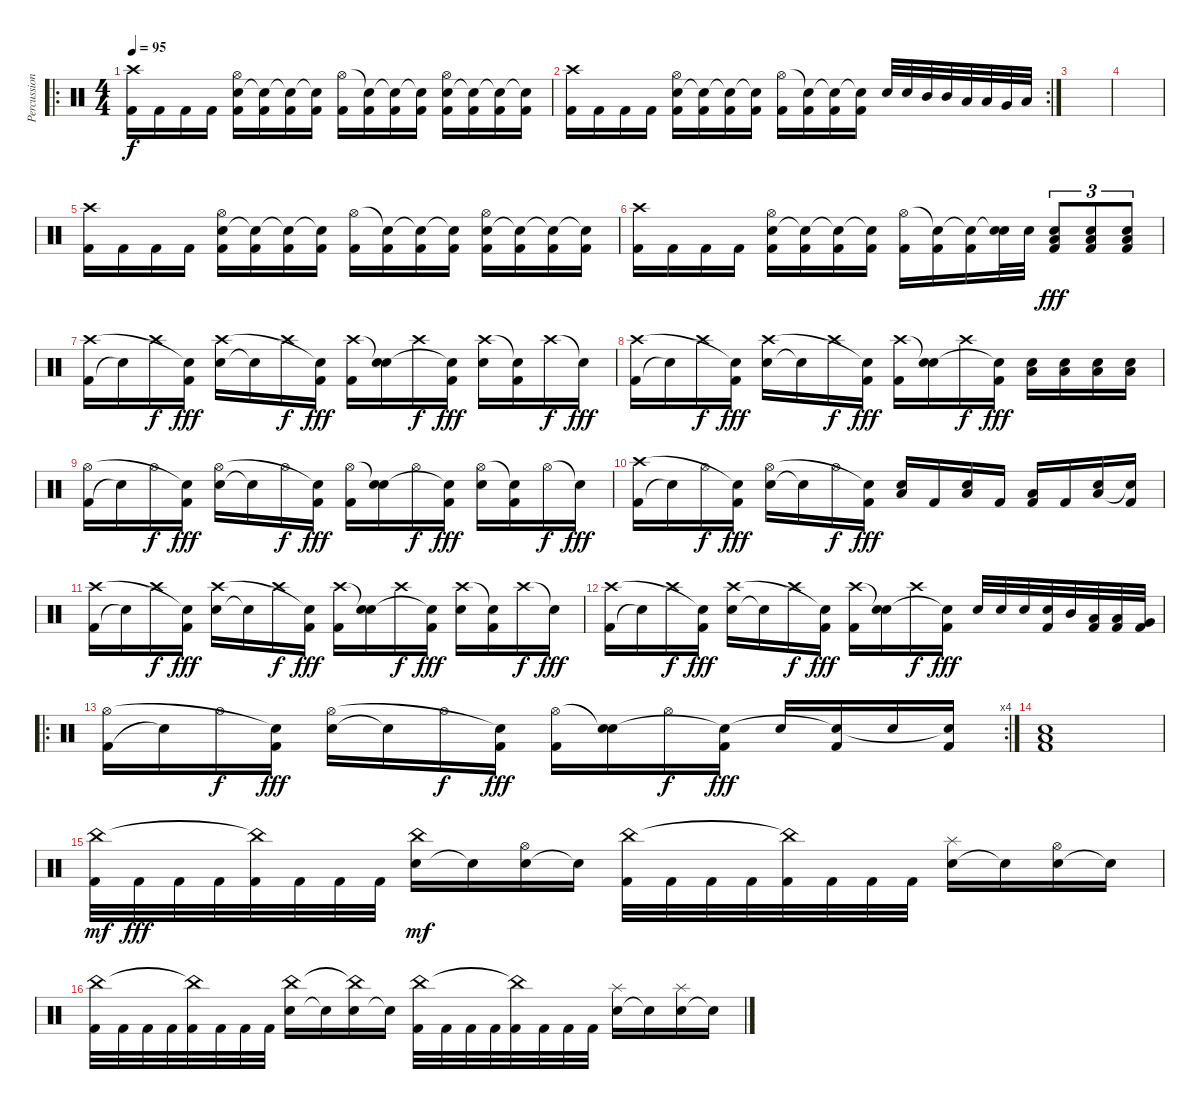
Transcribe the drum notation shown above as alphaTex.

\track ("Percussion" "Percussion") {instrument percussion}
\staff {score}
\articulation defaults
\ro
\ts (4 4)
\tempo 95
\clef neutral
\ks c
("Crash high (hit)" "Kick (hit) 2").16{dy f} "Kick (hit) 2".16 "Kick (hit) 2".16 "Kick (hit) 2".16 ("Kick (hit) 2" "Electric Snare (hit)" "Hi-Hat (open)").16 ("Kick (hit) 2" "Snare (hit)"{t}).16 ("Kick (hit) 2" "Snare (hit)"{t}).16 ("Kick (hit) 2" "Snare (hit)"{t}).16 ("Kick (hit) 2" "Hi-Hat (open)").16 ("Kick (hit) 2" "Snare (hit)"{t}).16 ("Kick (hit) 2" "Snare (hit)"{t}).16 ("Kick (hit) 2" "Snare (hit)"{t}).16 ("Kick (hit) 2" "Electric Snare (hit)" "Hi-Hat (open)").16 ("Kick (hit) 2" "Snare (hit)"{t}).16 ("Kick (hit) 2" "Snare (hit)"{t}).16 ("Kick (hit) 2" "Snare (hit)"{t}).16 |
\rc 2
("Crash high (hit)" "Kick (hit) 2").16 "Kick (hit) 2".16 "Kick (hit) 2".16 "Kick (hit) 2".16 ("Kick (hit) 2" "Electric Snare (hit)" "Hi-Hat (open)").16 ("Kick (hit) 2" "Snare (hit)"{t}).16 ("Kick (hit) 2" "Snare (hit)"{t}).16 ("Kick (hit) 2" "Snare (hit)"{t}).16 ("Kick (hit) 2" "Hi-Hat (open)").16 ("Kick (hit) 2" "Snare (hit)"{t}).16 ("Kick (hit) 2" "Snare (hit)"{t}).16 ("Kick (hit) 2" "Snare (hit)"{t}).16 "Electric Snare (hit)".32 "Electric Snare (hit)".32 "Mid Tom (hit)".32 "Mid Tom (hit)".32 "Low Tom (hit)".32 "Low Tom (hit)".32 "Very Low Tom (hit)".32 "Low Floor Tom (hit)".32 |
|
|
("Crash high (hit)" "Kick (hit) 2").16 "Kick (hit) 2".16 "Kick (hit) 2".16 "Kick (hit) 2".16 ("Kick (hit) 2" "Electric Snare (hit)" "Hi-Hat (open)").16 ("Kick (hit) 2" "Snare (hit)"{t}).16 ("Kick (hit) 2" "Snare (hit)"{t}).16 ("Kick (hit) 2" "Snare (hit)"{t}).16 ("Kick (hit) 2" "Hi-Hat (open)").16 ("Kick (hit) 2" "Snare (hit)"{t}).16 ("Kick (hit) 2" "Snare (hit)"{t}).16 ("Kick (hit) 2" "Snare (hit)"{t}).16 ("Kick (hit) 2" "Electric Snare (hit)" "Hi-Hat (open)").16 ("Kick (hit) 2" "Snare (hit)"{t}).16 ("Kick (hit) 2" "Snare (hit)"{t}).16 ("Kick (hit) 2" "Snare (hit)"{t}).16 |
("Crash high (hit)" "Kick (hit) 2").16 "Kick (hit) 2".16 "Kick (hit) 2".16 "Kick (hit) 2".16 ("Kick (hit) 2" "Electric Snare (hit)" "Hi-Hat (open)").16 ("Kick (hit) 2" "Snare (hit)"{t}).16 ("Kick (hit) 2" "Snare (hit)"{t}).16 ("Kick (hit) 2" "Snare (hit)"{t}).16 ("Kick (hit) 2" "Hi-Hat (open)").16 ("Kick (hit) 2" "Snare (hit)"{t}).16 ("Kick (hit) 2" "Snare (hit)"{t}).16 ("Electric Snare (hit)" "Snare (hit)"{t}).32 "Electric Snare (hit)".32 ("Kick (hit) 2" "Low Floor Tom (hit)" "Electric Snare (hit)").8{tu (3 2) dy fff} ("Kick (hit) 2" "Low Floor Tom (hit)" "Electric Snare (hit)").8{tu (3 2)} ("Kick (hit) 2" "Low Floor Tom (hit)" "Electric Snare (hit)").8{tu (3 2)} |
("Kick (hit) 2" "Crash high (hit)").16 "Snare (hit)"{t}.16 "Crash high (hit)".16{dy f} ("Kick (hit) 2" "Snare (hit)"{t}).16{dy fff} ("Electric Snare (hit)" "Crash high (hit)").16 "Snare (hit)"{t}.16 "Crash high (hit)".16{dy f} ("Kick (hit) 2" "Snare (hit)"{t}).16{dy fff} ("Kick (hit) 2" "Crash high (hit)").16 ("Electric Snare (hit)" "Snare (hit)"{t}).16 "Crash high (hit)".16{dy f} ("Kick (hit) 2" "Snare (hit)"{t}).16{dy fff} ("Electric Snare (hit)" "Crash high (hit)").16 ("Kick (hit) 2" "Snare (hit)"{t}).16 "Crash high (hit)".16{dy f} "Snare (hit)"{t}.16{dy fff} |
("Kick (hit) 2" "Crash high (hit)").16 "Snare (hit)"{t}.16 "Crash high (hit)".16{dy f} ("Kick (hit) 2" "Snare (hit)"{t}).16{dy fff} ("Electric Snare (hit)" "Crash high (hit)").16 "Snare (hit)"{t}.16 "Crash high (hit)".16{dy f} ("Kick (hit) 2" "Snare (hit)"{t}).16{dy fff} ("Kick (hit) 2" "Crash high (hit)").16 ("Electric Snare (hit)" "Snare (hit)"{t}).16 "Crash high (hit)".16{dy f} ("Kick (hit) 2" "Snare (hit)"{t}).16{dy fff} ("Electric Snare (hit)" "Low Floor Tom (hit)").16 ("Electric Snare (hit)" "Low Floor Tom (hit)").16 ("Electric Snare (hit)" "Low Floor Tom (hit)").16 ("Electric Snare (hit)" "Low Floor Tom (hit)").16 |
("Kick (hit) 2" "Hi-Hat (open)").16 "Snare (hit)"{t}.16 "Hi-Hat (open)".16{dy f} ("Kick (hit) 2" "Snare (hit)"{t}).16{dy fff} ("Electric Snare (hit)" "Hi-Hat (open)").16 "Snare (hit)"{t}.16 "Hi-Hat (open)".16{dy f} ("Kick (hit) 2" "Snare (hit)"{t}).16{dy fff} ("Kick (hit) 2" "Hi-Hat (open)").16 ("Electric Snare (hit)" "Snare (hit)"{t}).16 "Hi-Hat (open)".16{dy f} ("Kick (hit) 2" "Snare (hit)"{t}).16{dy fff} ("Electric Snare (hit)" "Hi-Hat (open)").16 ("Kick (hit) 2" "Snare (hit)"{t}).16 "Hi-Hat (open)".16{dy f} "Snare (hit)"{t}.16{dy fff} |
("Kick (hit) 2" "Crash high (hit)").16 "Snare (hit)"{t}.16 "Hi-Hat (open)".16{dy f} ("Kick (hit) 2" "Snare (hit)"{t}).16{dy fff} ("Electric Snare (hit)" "Hi-Hat (open)").16 "Snare (hit)"{t}.16 "Hi-Hat (open)".16{dy f} ("Kick (hit) 2" "Snare (hit)"{t}).16{dy fff} ("Electric Snare (hit)" "Low Floor Tom (hit)").16 "Kick (hit) 2".16 ("Electric Snare (hit)" "Low Floor Tom (hit)").16 "Kick (hit) 2".16 ("Kick (hit) 2" "Low Floor Tom (hit)").16 "Kick (hit) 2".16 ("Electric Snare (hit)" "Low Floor Tom (hit)").16 ("Kick (hit) 2" "Snare (hit)"{t}).16 |
("Kick (hit) 2" "Crash high (hit)").16 "Snare (hit)"{t}.16 "Crash high (hit)".16{dy f} ("Kick (hit) 2" "Snare (hit)"{t}).16{dy fff} ("Electric Snare (hit)" "Crash high (hit)").16 "Snare (hit)"{t}.16 "Crash high (hit)".16{dy f} ("Kick (hit) 2" "Snare (hit)"{t}).16{dy fff} ("Kick (hit) 2" "Crash high (hit)").16 ("Electric Snare (hit)" "Snare (hit)"{t}).16 "Crash high (hit)".16{dy f} ("Kick (hit) 2" "Snare (hit)"{t}).16{dy fff} ("Electric Snare (hit)" "Crash high (hit)").16 ("Kick (hit) 2" "Snare (hit)"{t}).16 "Crash high (hit)".16{dy f} "Snare (hit)"{t}.16{dy fff} |
("Kick (hit) 2" "Crash high (hit)").16 "Snare (hit)"{t}.16 "Crash high (hit)".16{dy f} ("Kick (hit) 2" "Snare (hit)"{t}).16{dy fff} ("Electric Snare (hit)" "Crash high (hit)").16 "Snare (hit)"{t}.16 "Crash high (hit)".16{dy f} ("Kick (hit) 2" "Snare (hit)"{t}).16{dy fff} ("Kick (hit) 2" "Crash high (hit)").16 ("Electric Snare (hit)" "Snare (hit)"{t}).16 "Crash high (hit)".16{dy f} ("Kick (hit) 2" "Snare (hit)"{t}).16{dy fff} "Electric Snare (hit)".32 "Electric Snare (hit)".32 "Electric Snare (hit)".32 ("Electric Snare (hit)" "Kick (hit) 2").32 "Mid Tom (hit)".32 ("Low Tom (hit)" "Kick (hit) 2").32 ("Low Tom (hit)" "Kick (hit) 2").32 ("Very Low Tom (hit)" "Kick (hit) 2").32 |
\ro
\rc 4
("Kick (hit) 2" "Hi-Hat (open)").16 "Snare (hit)"{t}.16 "Hi-Hat (open)".16{dy f} ("Kick (hit) 2" "Snare (hit)"{t}).16{dy fff} ("Electric Snare (hit)" "Hi-Hat (open)").16 "Snare (hit)"{t}.16 "Hi-Hat (open)".16{dy f} ("Kick (hit) 2" "Snare (hit)"{t}).16{dy fff} ("Kick (hit) 2" "Hi-Hat (open)").16 ("Electric Snare (hit)" "Snare (hit)"{t}).16 "Hi-Hat (open)".16{dy f} ("Kick (hit) 2" "Snare (hit)"{t}).16{dy fff} "Electric Snare (hit)".16 ("Kick (hit) 2" "Snare (hit)"{t}).16 "Electric Snare (hit)".16 ("Kick (hit) 2" "Snare (hit)"{t}).16 |
("Low Floor Tom (hit)" "Kick (hit) 2" "Electric Snare (hit)").1 |
("Kick (hit) 2" "China (hit)").32{dy mf} "Kick (hit) 2".32{dy fff} "Kick (hit) 2".32 "Kick (hit) 2".32 ("Kick (hit) 2" "China (hit)"{t}).32 "Kick (hit) 2".32 "Kick (hit) 2".32 "Kick (hit) 2".32 ("Electric Snare (hit)" "China (hit)").16{dy mf} "Snare (hit)"{t}.16 ("Electric Snare (hit)" "Hi-Hat (open)").16 "Snare (hit)"{t}.16 ("Kick (hit) 2" "China (hit)").32 "Kick (hit) 2".32 "Kick (hit) 2".32 "Kick (hit) 2".32 ("Kick (hit) 2" "China (hit)"{t}).32 "Kick (hit) 2".32 "Kick (hit) 2".32 "Kick (hit) 2".32 ("Electric Snare (hit)" "Splash (hit)").16 "Snare (hit)"{t}.16 ("Electric Snare (hit)" "Hi-Hat (open)").16 "Snare (hit)"{t}.16 |
("Kick (hit) 2" "China (hit)").32 "Kick (hit) 2".32 "Kick (hit) 2".32 "Kick (hit) 2".32 ("Kick (hit) 2" "China (hit)"{t}).32 "Kick (hit) 2".32 "Kick (hit) 2".32 "Kick (hit) 2".32 ("Electric Snare (hit)" "China (hit)").16 "Snare (hit)"{t}.16 ("Electric Snare (hit)" "China (hit)"{t}).16 "Snare (hit)"{t}.16 ("Kick (hit) 2" "China (hit)").32 "Kick (hit) 2".32 "Kick (hit) 2".32 "Kick (hit) 2".32 ("Kick (hit) 2" "China (hit)"{t}).32 "Kick (hit) 2".32 "Kick (hit) 2".32 "Kick (hit) 2".32 ("Electric Snare (hit)" "Splash (hit)").16 "Snare (hit)"{t}.16 ("Electric Snare (hit)" "Splash (hit)").16 "Snare (hit)"{t}.16
